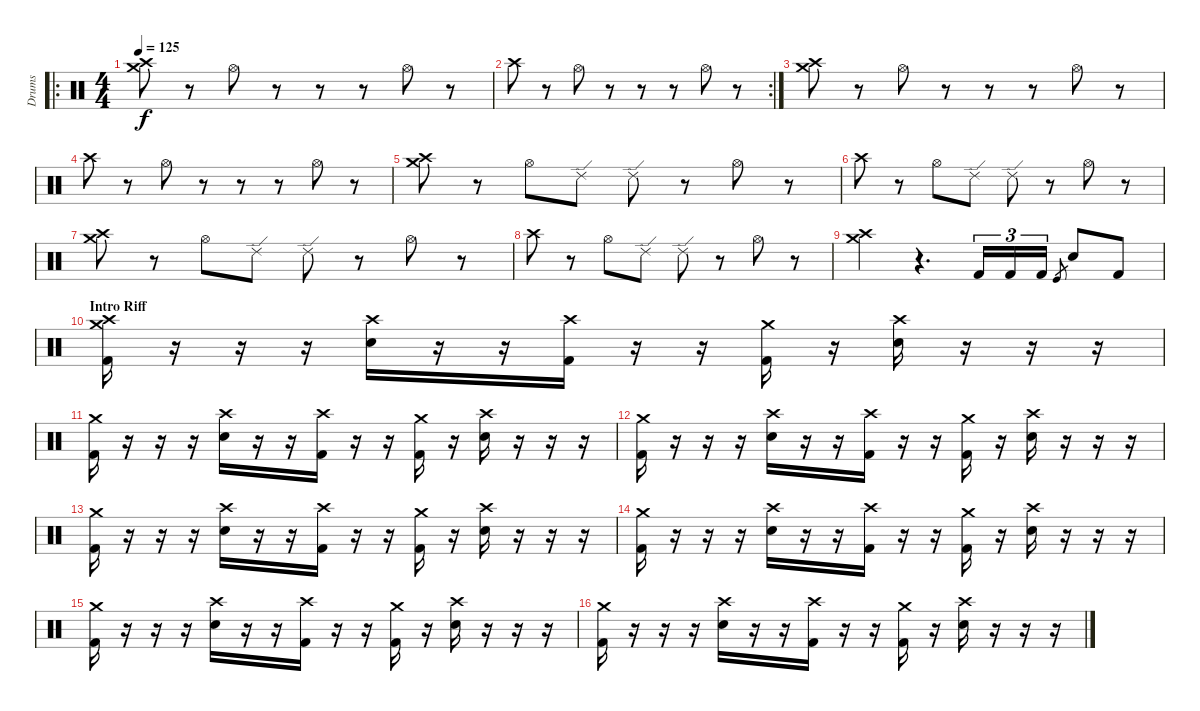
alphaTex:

\track ("Drums" "Drums") {instrument percussion}
\staff {score}
\articulation defaults
\ro
\ts (4 4)
\tempo 125
\clef neutral
\ks c
("Crash medium (hit)" "Crash high (hit)").8{dy f} r.8 "Hi-Hat (open)".8 r.8 r.8 r.8 "Hi-Hat (open)".8 r.8 |
\rc 2 "Crash high (hit)".8
r.8 "Hi-Hat (open)".8 r.8 r.8 r.8 "Hi-Hat (open)".8 r.8 |
("Crash medium (hit)" "Crash high (hit)").8 r.8 "Hi-Hat (open)".8 r.8 r.8 r.8 "Hi-Hat (open)".8 r.8 |
"Crash high (hit)".8 r.8 "Hi-Hat (open)".8 r.8 r.8 r.8 "Hi-Hat (open)".8 r.8 |
("Crash medium (hit)" "Crash high (hit)").8 r.8 "Hi-Hat (open)".8 "Ride (edge) 2".8 "Ride (edge) 2".8 r.8 "Hi-Hat (open)".8 r.8 |
"Crash high (hit)".8 r.8 "Hi-Hat (open)".8 "Ride (edge) 2".8 "Ride (edge) 2".8 r.8 "Hi-Hat (open)".8 r.8 |
("Crash medium (hit)" "Crash high (hit)").8 r.8 "Hi-Hat (open)".8 "Ride (edge) 2".8 "Ride (edge) 2".8 r.8 "Hi-Hat (open)".8 r.8 |
"Crash high (hit)".8 r.8 "Hi-Hat (open)".8 "Ride (edge) 2".8 "Ride (edge) 2".8 r.8 "Hi-Hat (open)".8 r.8 |
("Crash medium (hit)" "Crash high (hit)").4 r.4{d} "Kick (hit) 2".16{tu (3 2)} "Kick (hit) 2".16{tu (3 2)} "Kick (hit) 2".16{tu (3 2)} "Kick (hit)".8{gr} "Electric Snare (hit)".8 "Kick (hit) 2".8 |
\section ("" "Intro Riff")
("Crash high (hit)" "Crash medium (hit)" "Kick (hit) 2").16 r.16 r.16 r.16 ("Crash high (hit)" "Electric Snare (hit)").16 r.16 r.16 ("Crash high (hit)" "Kick (hit) 2").16 r.16 r.16 ("Crash medium (hit)" "Kick (hit) 2").16 r.16 ("Crash high (hit)" "Electric Snare (hit)").16 r.16 r.16 r.16 |
("Crash medium (hit)" "Kick (hit) 2").16 r.16 r.16 r.16 ("Crash high (hit)" "Electric Snare (hit)").16 r.16 r.16 ("Crash high (hit)" "Kick (hit) 2").16 r.16 r.16 ("Crash medium (hit)" "Kick (hit) 2").16 r.16 ("Crash high (hit)" "Electric Snare (hit)").16 r.16 r.16 r.16 |
("Crash medium (hit)" "Kick (hit) 2").16 r.16 r.16 r.16 ("Crash high (hit)" "Electric Snare (hit)").16 r.16 r.16 ("Crash high (hit)" "Kick (hit) 2").16 r.16 r.16 ("Crash medium (hit)" "Kick (hit) 2").16 r.16 ("Crash high (hit)" "Electric Snare (hit)").16 r.16 r.16 r.16 |
("Crash medium (hit)" "Kick (hit) 2").16 r.16 r.16 r.16 ("Crash high (hit)" "Electric Snare (hit)").16 r.16 r.16 ("Crash high (hit)" "Kick (hit) 2").16 r.16 r.16 ("Crash medium (hit)" "Kick (hit) 2").16 r.16 ("Crash high (hit)" "Electric Snare (hit)").16 r.16 r.16 r.16 |
("Crash medium (hit)" "Kick (hit) 2").16 r.16 r.16 r.16 ("Crash high (hit)" "Electric Snare (hit)").16 r.16 r.16 ("Crash high (hit)" "Kick (hit) 2").16 r.16 r.16 ("Crash medium (hit)" "Kick (hit) 2").16 r.16 ("Crash high (hit)" "Electric Snare (hit)").16 r.16 r.16 r.16 |
("Crash medium (hit)" "Kick (hit) 2").16 r.16 r.16 r.16 ("Crash high (hit)" "Electric Snare (hit)").16 r.16 r.16 ("Crash high (hit)" "Kick (hit) 2").16 r.16 r.16 ("Crash medium (hit)" "Kick (hit) 2").16 r.16 ("Crash high (hit)" "Electric Snare (hit)").16 r.16 r.16 r.16 |
("Crash medium (hit)" "Kick (hit) 2").16 r.16 r.16 r.16 ("Crash high (hit)" "Electric Snare (hit)").16 r.16 r.16 ("Crash high (hit)" "Kick (hit) 2").16 r.16 r.16 ("Crash medium (hit)" "Kick (hit) 2").16 r.16 ("Crash high (hit)" "Electric Snare (hit)").16 r.16 r.16 r.16
